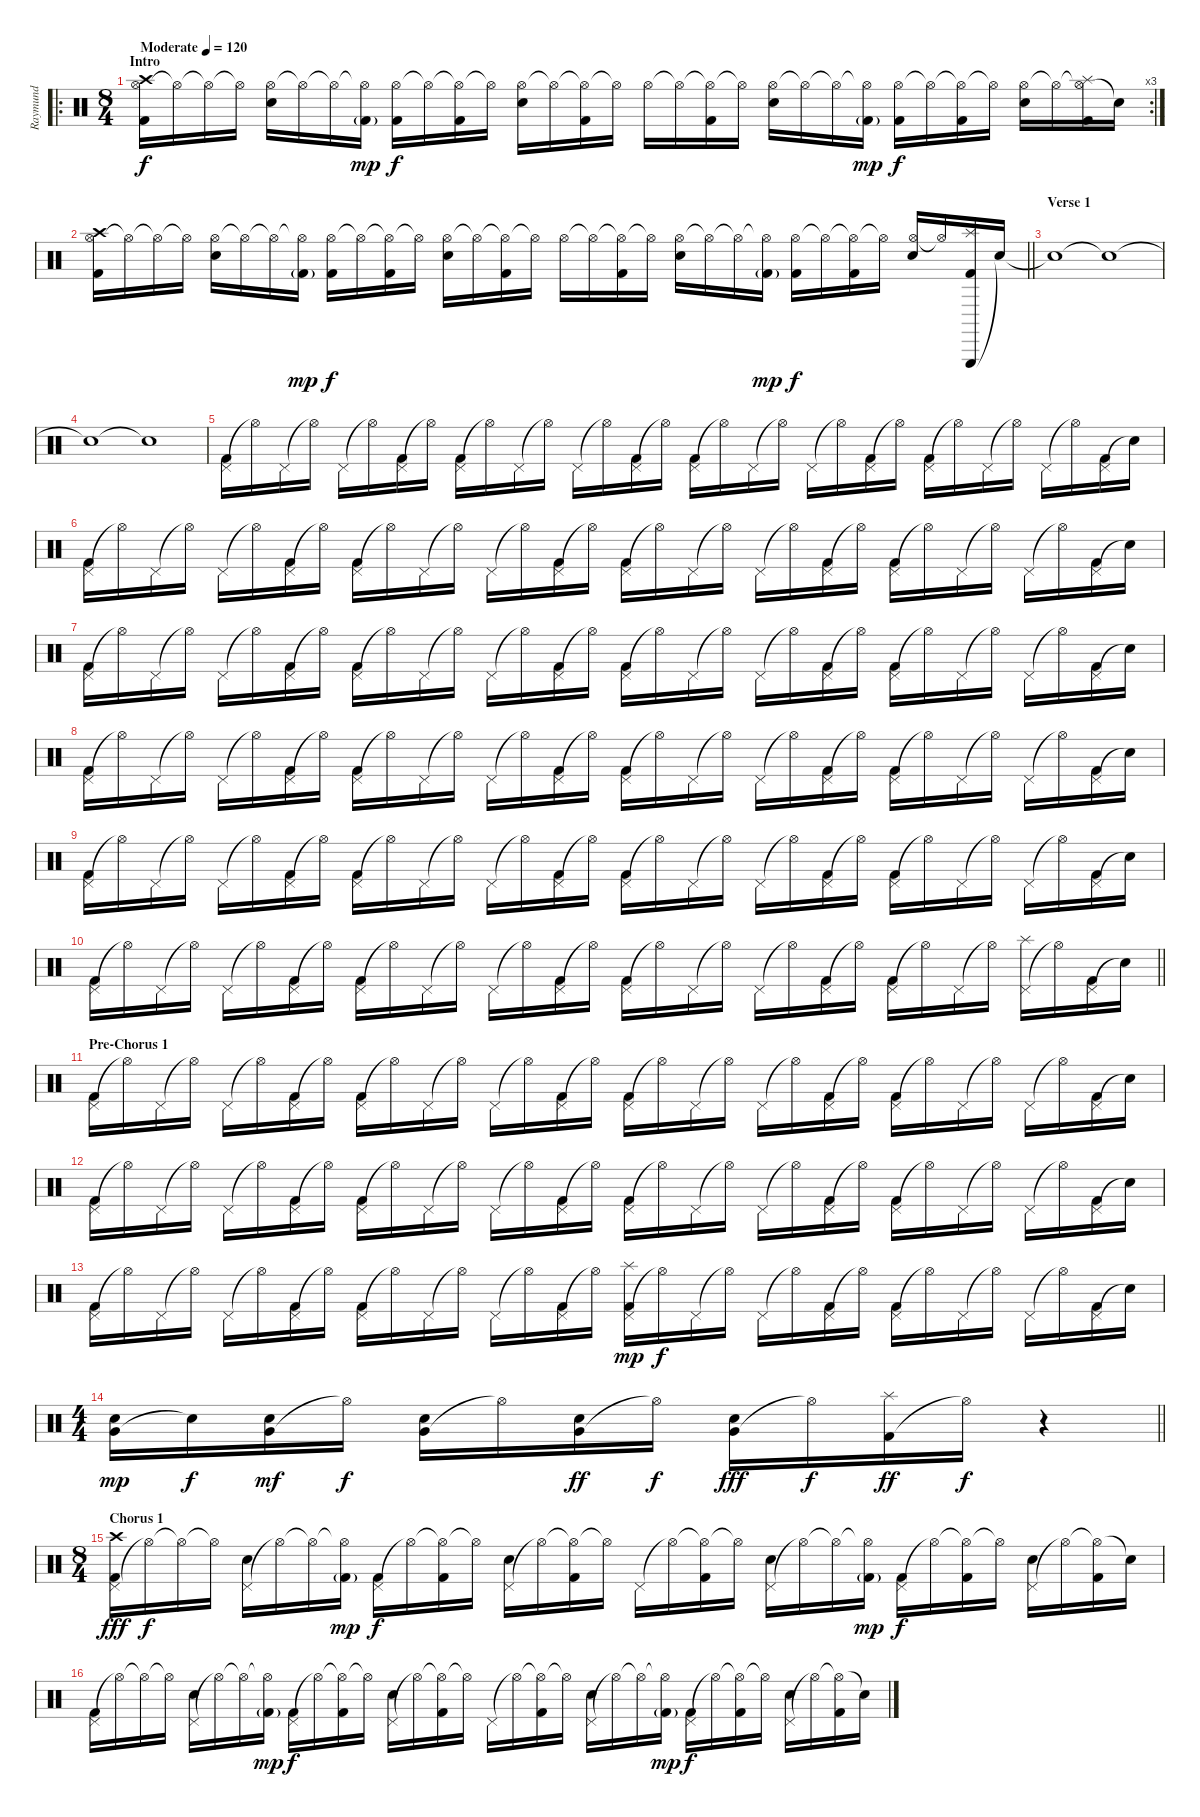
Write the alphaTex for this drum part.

\track ("Raymund" "Raymund") {instrument percussion}
\staff {score}
\articulation defaults
\ro
\rc 3
\ts (8 4)
\section ("" "Intro")
\tempo (120 "Moderate")
\clef neutral
\ks c
("Hi-Hat (open)" "Kick (hit) 2" "Crash high (hit)").16{dy f} "Hi-Hat (open)"{t}.16 "Hi-Hat (open)"{t}.16 "Hi-Hat (open)"{t}.16 ("Hi-Hat (open)" "Snare (hit) 2").16 "Hi-Hat (open)"{t}.16 "Hi-Hat (open)"{t}.16 ("Hi-Hat (open)"{t} "Kick (hit) 2"{g}).16{dy mp} ("Hi-Hat (open)" "Kick (hit) 2").16{dy f} "Hi-Hat (open)"{t}.16 ("Hi-Hat (open)"{t} "Kick (hit) 2").16 "Hi-Hat (open)"{t}.16 ("Hi-Hat (open)" "Snare (hit) 2").16 "Hi-Hat (open)"{t}.16 ("Hi-Hat (open)"{t} "Kick (hit) 2").16 "Hi-Hat (open)"{t}.16 "Hi-Hat (open)".16 "Hi-Hat (open)"{t}.16 ("Hi-Hat (open)"{t} "Kick (hit) 2").16 "Hi-Hat (open)"{t}.16 ("Hi-Hat (open)" "Snare (hit) 2").16 "Hi-Hat (open)"{t}.16 "Hi-Hat (open)"{t}.16 ("Hi-Hat (open)"{t} "Kick (hit) 2"{g}).16{dy mp} ("Hi-Hat (open)" "Kick (hit) 2").16{dy f} "Hi-Hat (open)"{t}.16 ("Hi-Hat (open)"{t} "Kick (hit) 2").16 "Hi-Hat (open)"{t}.16 ("Hi-Hat (open)" "Snare (hit) 2").16 "Hi-Hat (open)"{t}.16 ("Hi-Hat (open)"{t} "Kick (hit) 2" "Splash (hit)").16 "Snare (hit)"{t}.16 |
\barLineRight lightlight
("Hi-Hat (open)" "Kick (hit) 2" "Crash high (hit)").16 "Hi-Hat (open)"{t}.16 "Hi-Hat (open)"{t}.16 "Hi-Hat (open)"{t}.16 ("Hi-Hat (open)" "Snare (hit) 2").16 "Hi-Hat (open)"{t}.16 "Hi-Hat (open)"{t}.16 ("Hi-Hat (open)"{t} "Kick (hit) 2"{g}).16{dy mp} ("Hi-Hat (open)" "Kick (hit) 2").16{dy f} "Hi-Hat (open)"{t}.16 ("Hi-Hat (open)"{t} "Kick (hit) 2").16 "Hi-Hat (open)"{t}.16 ("Hi-Hat (open)" "Snare (hit) 2").16 "Hi-Hat (open)"{t}.16 ("Hi-Hat (open)"{t} "Kick (hit) 2").16 "Hi-Hat (open)"{t}.16 "Hi-Hat (open)".16 "Hi-Hat (open)"{t}.16 ("Hi-Hat (open)"{t} "Kick (hit) 2").16 "Hi-Hat (open)"{t}.16 ("Hi-Hat (open)" "Snare (hit) 2").16 "Hi-Hat (open)"{t}.16 "Hi-Hat (open)"{t}.16 ("Hi-Hat (open)"{t} "Kick (hit) 2"{g}).16{dy mp} ("Hi-Hat (open)" "Kick (hit) 2").16{dy f} "Hi-Hat (open)"{t}.16 ("Hi-Hat (open)"{t} "Kick (hit) 2").16 "Hi-Hat (open)"{t}.16 ("Hi-Hat (open)" "Snare (hit) 2").16 "Hi-Hat (open)"{t}.16 ("Triangle (hit)" "Kick (hit) 2" "Splash (hit)").16 "Snare (hit)"{t}.16 |
\section ("" "Verse 1")
"Snare (hit)"{t}.1 "Snare (hit)"{t}.1 |
"Snare (hit)"{t}.1 "Snare (hit)"{t}.1 |
("Pedal Hi-Hat (hit)" "Kick (hit) 2").16 "Hi-Hat (open)"{t}.16 "Pedal Hi-Hat (hit)".16 "Hi-Hat (open)"{t}.16 "Pedal Hi-Hat (hit)".16 "Hi-Hat (open)"{t}.16 ("Pedal Hi-Hat (hit)" "Kick (hit) 2").16 "Hi-Hat (open)"{t}.16 ("Pedal Hi-Hat (hit)" "Kick (hit) 2").16 "Hi-Hat (open)"{t}.16 "Pedal Hi-Hat (hit)".16 "Hi-Hat (open)"{t}.16 "Pedal Hi-Hat (hit)".16 "Hi-Hat (open)"{t}.16 ("Pedal Hi-Hat (hit)" "Kick (hit) 2").16 "Hi-Hat (open)"{t}.16 ("Pedal Hi-Hat (hit)" "Kick (hit) 2").16 "Hi-Hat (open)"{t}.16 "Pedal Hi-Hat (hit)".16 "Hi-Hat (open)"{t}.16 "Pedal Hi-Hat (hit)".16 "Hi-Hat (open)"{t}.16 ("Pedal Hi-Hat (hit)" "Kick (hit) 2").16 "Hi-Hat (open)"{t}.16 ("Pedal Hi-Hat (hit)" "Kick (hit) 2").16 "Hi-Hat (open)"{t}.16 "Pedal Hi-Hat (hit)".16 "Hi-Hat (open)"{t}.16 "Pedal Hi-Hat (hit)".16 "Hi-Hat (open)"{t}.16 ("Pedal Hi-Hat (hit)" "Kick (hit) 2").16 "Snare (hit)"{t}.16 |
("Pedal Hi-Hat (hit)" "Kick (hit) 2").16 "Hi-Hat (open)"{t}.16 "Pedal Hi-Hat (hit)".16 "Hi-Hat (open)"{t}.16 "Pedal Hi-Hat (hit)".16 "Hi-Hat (open)"{t}.16 ("Pedal Hi-Hat (hit)" "Kick (hit) 2").16 "Hi-Hat (open)"{t}.16 ("Pedal Hi-Hat (hit)" "Kick (hit) 2").16 "Hi-Hat (open)"{t}.16 "Pedal Hi-Hat (hit)".16 "Hi-Hat (open)"{t}.16 "Pedal Hi-Hat (hit)".16 "Hi-Hat (open)"{t}.16 ("Pedal Hi-Hat (hit)" "Kick (hit) 2").16 "Hi-Hat (open)"{t}.16 ("Pedal Hi-Hat (hit)" "Kick (hit) 2").16 "Hi-Hat (open)"{t}.16 "Pedal Hi-Hat (hit)".16 "Hi-Hat (open)"{t}.16 "Pedal Hi-Hat (hit)".16 "Hi-Hat (open)"{t}.16 ("Pedal Hi-Hat (hit)" "Kick (hit) 2").16 "Hi-Hat (open)"{t}.16 ("Pedal Hi-Hat (hit)" "Kick (hit) 2").16 "Hi-Hat (open)"{t}.16 "Pedal Hi-Hat (hit)".16 "Hi-Hat (open)"{t}.16 "Pedal Hi-Hat (hit)".16 "Hi-Hat (open)"{t}.16 ("Pedal Hi-Hat (hit)" "Kick (hit) 2").16 "Snare (hit)"{t}.16 |
("Pedal Hi-Hat (hit)" "Kick (hit) 2").16 "Hi-Hat (open)"{t}.16 "Pedal Hi-Hat (hit)".16 "Hi-Hat (open)"{t}.16 "Pedal Hi-Hat (hit)".16 "Hi-Hat (open)"{t}.16 ("Pedal Hi-Hat (hit)" "Kick (hit) 2").16 "Hi-Hat (open)"{t}.16 ("Pedal Hi-Hat (hit)" "Kick (hit) 2").16 "Hi-Hat (open)"{t}.16 "Pedal Hi-Hat (hit)".16 "Hi-Hat (open)"{t}.16 "Pedal Hi-Hat (hit)".16 "Hi-Hat (open)"{t}.16 ("Pedal Hi-Hat (hit)" "Kick (hit) 2").16 "Hi-Hat (open)"{t}.16 ("Pedal Hi-Hat (hit)" "Kick (hit) 2").16 "Hi-Hat (open)"{t}.16 "Pedal Hi-Hat (hit)".16 "Hi-Hat (open)"{t}.16 "Pedal Hi-Hat (hit)".16 "Hi-Hat (open)"{t}.16 ("Pedal Hi-Hat (hit)" "Kick (hit) 2").16 "Hi-Hat (open)"{t}.16 ("Pedal Hi-Hat (hit)" "Kick (hit) 2").16 "Hi-Hat (open)"{t}.16 "Pedal Hi-Hat (hit)".16 "Hi-Hat (open)"{t}.16 "Pedal Hi-Hat (hit)".16 "Hi-Hat (open)"{t}.16 ("Pedal Hi-Hat (hit)" "Kick (hit) 2").16 "Snare (hit)"{t}.16 |
("Pedal Hi-Hat (hit)" "Kick (hit) 2").16 "Hi-Hat (open)"{t}.16 "Pedal Hi-Hat (hit)".16 "Hi-Hat (open)"{t}.16 "Pedal Hi-Hat (hit)".16 "Hi-Hat (open)"{t}.16 ("Pedal Hi-Hat (hit)" "Kick (hit) 2").16 "Hi-Hat (open)"{t}.16 ("Pedal Hi-Hat (hit)" "Kick (hit) 2").16 "Hi-Hat (open)"{t}.16 "Pedal Hi-Hat (hit)".16 "Hi-Hat (open)"{t}.16 "Pedal Hi-Hat (hit)".16 "Hi-Hat (open)"{t}.16 ("Pedal Hi-Hat (hit)" "Kick (hit) 2").16 "Hi-Hat (open)"{t}.16 ("Pedal Hi-Hat (hit)" "Kick (hit) 2").16 "Hi-Hat (open)"{t}.16 "Pedal Hi-Hat (hit)".16 "Hi-Hat (open)"{t}.16 "Pedal Hi-Hat (hit)".16 "Hi-Hat (open)"{t}.16 ("Pedal Hi-Hat (hit)" "Kick (hit) 2").16 "Hi-Hat (open)"{t}.16 ("Pedal Hi-Hat (hit)" "Kick (hit) 2").16 "Hi-Hat (open)"{t}.16 "Pedal Hi-Hat (hit)".16 "Hi-Hat (open)"{t}.16 "Pedal Hi-Hat (hit)".16 "Hi-Hat (open)"{t}.16 ("Pedal Hi-Hat (hit)" "Kick (hit) 2").16 "Snare (hit)"{t}.16 |
("Pedal Hi-Hat (hit)" "Kick (hit) 2").16 "Hi-Hat (open)"{t}.16 "Pedal Hi-Hat (hit)".16 "Hi-Hat (open)"{t}.16 "Pedal Hi-Hat (hit)".16 "Hi-Hat (open)"{t}.16 ("Pedal Hi-Hat (hit)" "Kick (hit) 2").16 "Hi-Hat (open)"{t}.16 ("Pedal Hi-Hat (hit)" "Kick (hit) 2").16 "Hi-Hat (open)"{t}.16 "Pedal Hi-Hat (hit)".16 "Hi-Hat (open)"{t}.16 "Pedal Hi-Hat (hit)".16 "Hi-Hat (open)"{t}.16 ("Pedal Hi-Hat (hit)" "Kick (hit) 2").16 "Hi-Hat (open)"{t}.16 ("Pedal Hi-Hat (hit)" "Kick (hit) 2").16 "Hi-Hat (open)"{t}.16 "Pedal Hi-Hat (hit)".16 "Hi-Hat (open)"{t}.16 "Pedal Hi-Hat (hit)".16 "Hi-Hat (open)"{t}.16 ("Pedal Hi-Hat (hit)" "Kick (hit) 2").16 "Hi-Hat (open)"{t}.16 ("Pedal Hi-Hat (hit)" "Kick (hit) 2").16 "Hi-Hat (open)"{t}.16 "Pedal Hi-Hat (hit)".16 "Hi-Hat (open)"{t}.16 "Pedal Hi-Hat (hit)".16 "Hi-Hat (open)"{t}.16 ("Pedal Hi-Hat (hit)" "Kick (hit) 2").16 "Snare (hit)"{t}.16 |
\barLineRight lightlight
("Pedal Hi-Hat (hit)" "Kick (hit) 2").16 "Hi-Hat (open)"{t}.16 "Pedal Hi-Hat (hit)".16 "Hi-Hat (open)"{t}.16 "Pedal Hi-Hat (hit)".16 "Hi-Hat (open)"{t}.16 ("Pedal Hi-Hat (hit)" "Kick (hit) 2").16 "Hi-Hat (open)"{t}.16 ("Pedal Hi-Hat (hit)" "Kick (hit) 2").16 "Hi-Hat (open)"{t}.16 "Pedal Hi-Hat (hit)".16 "Hi-Hat (open)"{t}.16 "Pedal Hi-Hat (hit)".16 "Hi-Hat (open)"{t}.16 ("Pedal Hi-Hat (hit)" "Kick (hit) 2").16 "Hi-Hat (open)"{t}.16 ("Pedal Hi-Hat (hit)" "Kick (hit) 2").16 "Hi-Hat (open)"{t}.16 "Pedal Hi-Hat (hit)".16 "Hi-Hat (open)"{t}.16 "Pedal Hi-Hat (hit)".16 "Hi-Hat (open)"{t}.16 ("Pedal Hi-Hat (hit)" "Kick (hit) 2").16 "Hi-Hat (open)"{t}.16 ("Pedal Hi-Hat (hit)" "Kick (hit) 2").16 "Hi-Hat (open)"{t}.16 "Pedal Hi-Hat (hit)".16 "Hi-Hat (open)"{t}.16 ("Pedal Hi-Hat (hit)" "Splash (hit)").16 "Hi-Hat (open)"{t}.16 ("Pedal Hi-Hat (hit)" "Kick (hit) 2").16 "Snare (hit)"{t}.16 |
\section ("" "Pre-Chorus 1")
("Pedal Hi-Hat (hit)" "Kick (hit) 2").16 "Hi-Hat (open)"{t}.16 "Pedal Hi-Hat (hit)".16 "Hi-Hat (open)"{t}.16 "Pedal Hi-Hat (hit)".16 "Hi-Hat (open)"{t}.16 ("Pedal Hi-Hat (hit)" "Kick (hit) 2").16 "Hi-Hat (open)"{t}.16 ("Pedal Hi-Hat (hit)" "Kick (hit) 2").16 "Hi-Hat (open)"{t}.16 "Pedal Hi-Hat (hit)".16 "Hi-Hat (open)"{t}.16 "Pedal Hi-Hat (hit)".16 "Hi-Hat (open)"{t}.16 ("Pedal Hi-Hat (hit)" "Kick (hit) 2").16 "Hi-Hat (open)"{t}.16 ("Pedal Hi-Hat (hit)" "Kick (hit) 2").16 "Hi-Hat (open)"{t}.16 "Pedal Hi-Hat (hit)".16 "Hi-Hat (open)"{t}.16 "Pedal Hi-Hat (hit)".16 "Hi-Hat (open)"{t}.16 ("Pedal Hi-Hat (hit)" "Kick (hit) 2").16 "Hi-Hat (open)"{t}.16 ("Pedal Hi-Hat (hit)" "Kick (hit) 2").16 "Hi-Hat (open)"{t}.16 "Pedal Hi-Hat (hit)".16 "Hi-Hat (open)"{t}.16 "Pedal Hi-Hat (hit)".16 "Hi-Hat (open)"{t}.16 ("Pedal Hi-Hat (hit)" "Kick (hit) 2").16 "Snare (hit)"{t}.16 |
("Pedal Hi-Hat (hit)" "Kick (hit) 2").16 "Hi-Hat (open)"{t}.16 "Pedal Hi-Hat (hit)".16 "Hi-Hat (open)"{t}.16 "Pedal Hi-Hat (hit)".16 "Hi-Hat (open)"{t}.16 ("Pedal Hi-Hat (hit)" "Kick (hit) 2").16 "Hi-Hat (open)"{t}.16 ("Pedal Hi-Hat (hit)" "Kick (hit) 2").16 "Hi-Hat (open)"{t}.16 "Pedal Hi-Hat (hit)".16 "Hi-Hat (open)"{t}.16 "Pedal Hi-Hat (hit)".16 "Hi-Hat (open)"{t}.16 ("Pedal Hi-Hat (hit)" "Kick (hit) 2").16 "Hi-Hat (open)"{t}.16 ("Pedal Hi-Hat (hit)" "Kick (hit) 2").16 "Hi-Hat (open)"{t}.16 "Pedal Hi-Hat (hit)".16 "Hi-Hat (open)"{t}.16 "Pedal Hi-Hat (hit)".16 "Hi-Hat (open)"{t}.16 ("Pedal Hi-Hat (hit)" "Kick (hit) 2").16 "Hi-Hat (open)"{t}.16 ("Pedal Hi-Hat (hit)" "Kick (hit) 2").16 "Hi-Hat (open)"{t}.16 "Pedal Hi-Hat (hit)".16 "Hi-Hat (open)"{t}.16 "Pedal Hi-Hat (hit)".16 "Hi-Hat (open)"{t}.16 ("Pedal Hi-Hat (hit)" "Kick (hit) 2").16 "Snare (hit)"{t}.16 |
("Pedal Hi-Hat (hit)" "Kick (hit) 2").16 "Hi-Hat (open)"{t}.16 "Pedal Hi-Hat (hit)".16 "Hi-Hat (open)"{t}.16 "Pedal Hi-Hat (hit)".16 "Hi-Hat (open)"{t}.16 ("Pedal Hi-Hat (hit)" "Kick (hit) 2").16 "Hi-Hat (open)"{t}.16 ("Pedal Hi-Hat (hit)" "Kick (hit) 2").16 "Hi-Hat (open)"{t}.16 "Pedal Hi-Hat (hit)".16 "Hi-Hat (open)"{t}.16 "Pedal Hi-Hat (hit)".16 "Hi-Hat (open)"{t}.16 ("Pedal Hi-Hat (hit)" "Kick (hit) 2").16 "Hi-Hat (open)"{t}.16 ("Pedal Hi-Hat (hit)" "Kick (hit) 2" "Splash (hit)").16{dy mp} "Hi-Hat (open)"{t}.16{dy f} "Pedal Hi-Hat (hit)".16 "Hi-Hat (open)"{t}.16 "Pedal Hi-Hat (hit)".16 "Hi-Hat (open)"{t}.16 ("Pedal Hi-Hat (hit)" "Kick (hit) 2").16 "Hi-Hat (open)"{t}.16 ("Pedal Hi-Hat (hit)" "Kick (hit) 2").16 "Hi-Hat (open)"{t}.16 "Pedal Hi-Hat (hit)".16 "Hi-Hat (open)"{t}.16 "Pedal Hi-Hat (hit)".16 "Hi-Hat (open)"{t}.16 ("Pedal Hi-Hat (hit)" "Kick (hit) 2").16 "Snare (hit)"{t}.16 |
\ts (4 4)
\barLineRight lightlight
("Very Low Tom (hit)" "Snare (hit) 2").16{dy mp} "Snare (hit)"{t}.16{dy f} ("Very Low Tom (hit)" "Snare (hit) 2").16{dy mf} "Hi-Hat (open)"{t}.16{dy f} ("Very Low Tom (hit)" "Snare (hit) 2").16 "Hi-Hat (open)"{t}.16 ("Very Low Tom (hit)" "Snare (hit) 2").16{dy ff} "Hi-Hat (open)"{t}.16{dy f} ("Very Low Tom (hit)" "Snare (hit) 2").16{dy fff} "Hi-Hat (open)"{t}.16{dy f} ("Kick (hit) 2" "Splash (hit)").16{dy ff} "Hi-Hat (open)"{t}.16{dy f} r.4 |
\ts (8 4)
\section ("" "Chorus 1")
("Pedal Hi-Hat (hit)" "Kick (hit) 2" "Crash high (hit)").16{dy fff} "Hi-Hat (open)"{t}.16{dy f} "Hi-Hat (open)"{t}.16 "Hi-Hat (open)"{t}.16 ("Pedal Hi-Hat (hit)" "Snare (hit) 2").16 "Hi-Hat (open)"{t}.16 "Hi-Hat (open)"{t}.16 ("Hi-Hat (open)"{t} "Kick (hit) 2"{g}).16{dy mp} ("Pedal Hi-Hat (hit)" "Kick (hit) 2").16{dy f} "Hi-Hat (open)"{t}.16 ("Hi-Hat (open)"{t} "Kick (hit) 2").16 "Hi-Hat (open)"{t}.16 ("Pedal Hi-Hat (hit)" "Snare (hit) 2").16 "Hi-Hat (open)"{t}.16 ("Hi-Hat (open)"{t} "Kick (hit) 2").16 "Hi-Hat (open)"{t}.16 "Pedal Hi-Hat (hit)".16 "Hi-Hat (open)"{t}.16 ("Hi-Hat (open)"{t} "Kick (hit) 2").16 "Hi-Hat (open)"{t}.16 ("Pedal Hi-Hat (hit)" "Snare (hit) 2").16 "Hi-Hat (open)"{t}.16 "Hi-Hat (open)"{t}.16 ("Hi-Hat (open)"{t} "Kick (hit) 2"{g}).16{dy mp} ("Pedal Hi-Hat (hit)" "Kick (hit) 2").16{dy f} "Hi-Hat (open)"{t}.16 ("Hi-Hat (open)"{t} "Kick (hit) 2").16 "Hi-Hat (open)"{t}.16 ("Pedal Hi-Hat (hit)" "Snare (hit) 2").16 "Hi-Hat (open)"{t}.16 ("Hi-Hat (open)"{t} "Kick (hit) 2").16 "Snare (hit)"{t}.16 |
("Pedal Hi-Hat (hit)" "Kick (hit) 2").16 "Hi-Hat (open)"{t}.16 "Hi-Hat (open)"{t}.16 "Hi-Hat (open)"{t}.16 ("Pedal Hi-Hat (hit)" "Snare (hit) 2").16 "Hi-Hat (open)"{t}.16 "Hi-Hat (open)"{t}.16 ("Hi-Hat (open)"{t} "Kick (hit) 2"{g}).16{dy mp} ("Pedal Hi-Hat (hit)" "Kick (hit) 2").16{dy f} "Hi-Hat (open)"{t}.16 ("Hi-Hat (open)"{t} "Kick (hit) 2").16 "Hi-Hat (open)"{t}.16 ("Pedal Hi-Hat (hit)" "Snare (hit) 2").16 "Hi-Hat (open)"{t}.16 ("Hi-Hat (open)"{t} "Kick (hit) 2").16 "Hi-Hat (open)"{t}.16 "Pedal Hi-Hat (hit)".16 "Hi-Hat (open)"{t}.16 ("Hi-Hat (open)"{t} "Kick (hit) 2").16 "Hi-Hat (open)"{t}.16 ("Pedal Hi-Hat (hit)" "Snare (hit) 2").16 "Hi-Hat (open)"{t}.16 "Hi-Hat (open)"{t}.16 ("Hi-Hat (open)"{t} "Kick (hit) 2"{g}).16{dy mp} ("Pedal Hi-Hat (hit)" "Kick (hit) 2").16{dy f} "Hi-Hat (open)"{t}.16 ("Hi-Hat (open)"{t} "Kick (hit) 2").16 "Hi-Hat (open)"{t}.16 ("Pedal Hi-Hat (hit)" "Snare (hit) 2").16 "Hi-Hat (open)"{t}.16 ("Hi-Hat (open)"{t} "Kick (hit) 2").16 "Snare (hit)"{t}.16
